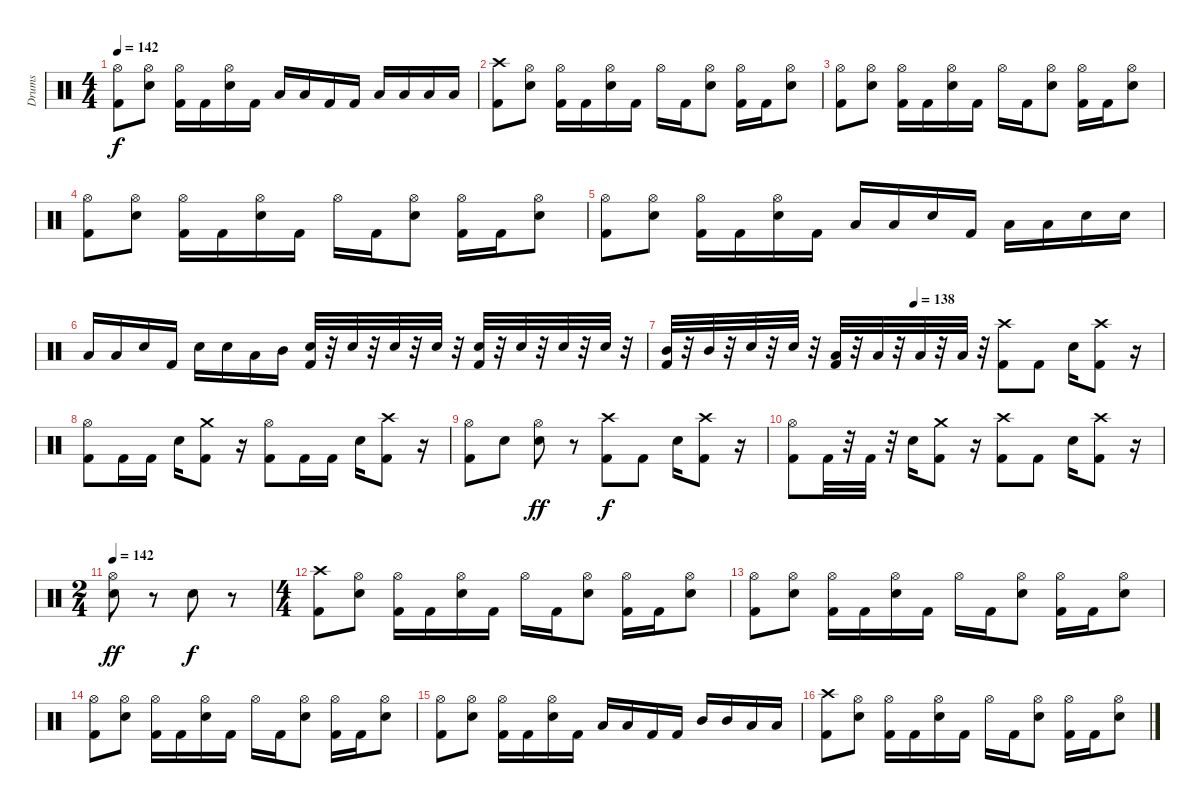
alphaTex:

\track ("Drums" "Drums") {instrument percussion}
\staff {score}
\articulation defaults
\ts (4 4)
\tempo 142
\clef neutral
\ks c
("Kick (hit) 2" "Hi-Hat (open)").8{dy f} ("Electric Snare (hit)" "Hi-Hat (open)").8 ("Hi-Hat (open)" "Kick (hit) 2").16 "Kick (hit) 2".16 ("Hi-Hat (open)" "Electric Snare (hit)").16 "Kick (hit) 2".16 "Low Tom (hit)".16 "Low Tom (hit)".16 "Kick (hit) 2".16 "Kick (hit) 2".16 "Low Tom (hit)".16 "Low Tom (hit)".16 "Low Floor Tom (hit)".16 "Low Floor Tom (hit)".16 |
("Kick (hit) 2" "Crash high (hit)").8 ("Electric Snare (hit)" "Hi-Hat (open)").8 ("Hi-Hat (open)" "Kick (hit) 2").16 "Kick (hit) 2".16 ("Hi-Hat (open)" "Electric Snare (hit)").16 "Kick (hit) 2".16 "Hi-Hat (open)".16 "Kick (hit) 2".16 ("Hi-Hat (open)" "Electric Snare (hit)").8 ("Hi-Hat (open)" "Kick (hit) 2").16 "Kick (hit) 2".16 ("Hi-Hat (open)" "Electric Snare (hit)").8 |
("Kick (hit) 2" "Hi-Hat (open)").8 ("Electric Snare (hit)" "Hi-Hat (open)").8 ("Hi-Hat (open)" "Kick (hit) 2").16 "Kick (hit) 2".16 ("Hi-Hat (open)" "Electric Snare (hit)").16 "Kick (hit) 2".16 "Hi-Hat (open)".16 "Kick (hit) 2".16 ("Hi-Hat (open)" "Electric Snare (hit)").8 ("Hi-Hat (open)" "Kick (hit) 2").16 "Kick (hit) 2".16 ("Hi-Hat (open)" "Electric Snare (hit)").8 |
("Kick (hit) 2" "Hi-Hat (open)").8 ("Electric Snare (hit)" "Hi-Hat (open)").8 ("Hi-Hat (open)" "Kick (hit) 2").16 "Kick (hit) 2".16 ("Hi-Hat (open)" "Electric Snare (hit)").16 "Kick (hit) 2".16 "Hi-Hat (open)".16 "Kick (hit) 2".16 ("Hi-Hat (open)" "Electric Snare (hit)").8 ("Hi-Hat (open)" "Kick (hit) 2").16 "Kick (hit) 2".16 ("Hi-Hat (open)" "Electric Snare (hit)").8 |
("Kick (hit) 2" "Hi-Hat (open)").8 ("Electric Snare (hit)" "Hi-Hat (open)").8 ("Hi-Hat (open)" "Kick (hit) 2").16 "Kick (hit) 2".16 ("Hi-Hat (open)" "Electric Snare (hit)").16 "Kick (hit) 2".16 "Low Tom (hit)".16 "Low Tom (hit)".16 "Electric Snare (hit)".16 "Kick (hit) 2".16 "Low Tom (hit)".16 "Low Tom (hit)".16 "Electric Snare (hit)".16 "Electric Snare (hit)".16 |
"Low Tom (hit)".16 "Low Tom (hit)".16 "Electric Snare (hit)".16 "Kick (hit) 2".16 "Electric Snare (hit)".16 "Electric Snare (hit)".16 "Low Tom (hit)".16 "Mid Tom (hit)".16 ("Electric Snare (hit)" "Kick (hit) 2").32 r.32 "Electric Snare (hit)".32 r.32 "Electric Snare (hit)".32 r.32 "Electric Snare (hit)".32 r.32 ("Electric Snare (hit)" "Kick (hit) 2").32 r.32 "Electric Snare (hit)".32 r.32 "Electric Snare (hit)".32 r.32 "Electric Snare (hit)".32 r.32 |
\tempo (138 0.5)
("Kick (hit) 2" "Mid Tom (hit)").32 r.32 "Mid Tom (hit)".32 r.32 "Electric Snare (hit)".32 r.32 "Electric Snare (hit)".32 r.32 ("Kick (hit) 2" "Low Tom (hit)").32 r.32 "Low Tom (hit)".32 r.32 "Low Floor Tom (hit)".32 r.32 "Low Floor Tom (hit)".32 r.32 ("Kick (hit) 2" "Crash high (hit)").8 "Kick (hit) 2".8 "Electric Snare (hit)".16 ("Kick (hit) 2" "Crash high (hit)").8 r.16 |
("Kick (hit) 2" "Hi-Hat (open)").8 "Kick (hit) 2".16 "Kick (hit) 2".16 "Electric Snare (hit)".16 ("Kick (hit) 2" "Crash medium (hit)").8 r.16 ("Kick (hit) 2" "Hi-Hat (open)").8 "Kick (hit) 2".16 "Kick (hit) 2".16 "Electric Snare (hit)".16 ("Kick (hit) 2" "Crash high (hit)").8 r.16 |
("Kick (hit) 2" "Hi-Hat (open)").8 "Electric Snare (hit)".8 ("Electric Snare (hit)" "Hi-Hat (open)").8{dy ff} r.8 ("Kick (hit) 2" "Crash high (hit)").8{dy f} "Kick (hit) 2".8 "Electric Snare (hit)".16 ("Kick (hit) 2" "Crash high (hit)").8 r.16 |
("Kick (hit) 2" "Hi-Hat (open)").8 "Kick (hit) 2".32 r.32 "Kick (hit) 2".32 r.32 "Electric Snare (hit)".16 ("Kick (hit) 2" "Crash medium (hit)").8 r.16 ("Kick (hit) 2" "Crash high (hit)").8 "Kick (hit) 2".8 "Electric Snare (hit)".16 ("Kick (hit) 2" "Crash high (hit)").8 r.16 |
\ts (2 4)
\tempo 142
("Electric Snare (hit)" "Hi-Hat (open)").8{dy ff} r.8 "Snare (hit)".8{dy f} r.8 |
\ts (4 4)
("Kick (hit) 2" "Crash high (hit)").8 ("Electric Snare (hit)" "Hi-Hat (open)").8 ("Hi-Hat (open)" "Kick (hit) 2").16 "Kick (hit) 2".16 ("Hi-Hat (open)" "Electric Snare (hit)").16 "Kick (hit) 2".16 "Hi-Hat (open)".16 "Kick (hit) 2".16 ("Hi-Hat (open)" "Electric Snare (hit)").8 ("Hi-Hat (open)" "Kick (hit) 2").16 "Kick (hit) 2".16 ("Hi-Hat (open)" "Electric Snare (hit)").8 |
("Kick (hit) 2" "Hi-Hat (open)").8 ("Electric Snare (hit)" "Hi-Hat (open)").8 ("Hi-Hat (open)" "Kick (hit) 2").16 "Kick (hit) 2".16 ("Hi-Hat (open)" "Electric Snare (hit)").16 "Kick (hit) 2".16 "Hi-Hat (open)".16 "Kick (hit) 2".16 ("Hi-Hat (open)" "Electric Snare (hit)").8 ("Hi-Hat (open)" "Kick (hit) 2").16 "Kick (hit) 2".16 ("Hi-Hat (open)" "Electric Snare (hit)").8 |
("Kick (hit) 2" "Hi-Hat (open)").8 ("Electric Snare (hit)" "Hi-Hat (open)").8 ("Hi-Hat (open)" "Kick (hit) 2").16 "Kick (hit) 2".16 ("Hi-Hat (open)" "Electric Snare (hit)").16 "Kick (hit) 2".16 "Hi-Hat (open)".16 "Kick (hit) 2".16 ("Hi-Hat (open)" "Electric Snare (hit)").8 ("Hi-Hat (open)" "Kick (hit) 2").16 "Kick (hit) 2".16 ("Hi-Hat (open)" "Electric Snare (hit)").8 |
("Kick (hit) 2" "Hi-Hat (open)").8 ("Electric Snare (hit)" "Hi-Hat (open)").8 ("Hi-Hat (open)" "Kick (hit) 2").16 "Kick (hit) 2".16 ("Hi-Hat (open)" "Electric Snare (hit)").16 "Kick (hit) 2".16 "Low Tom (hit)".16 "Low Tom (hit)".16 "Kick (hit) 2".16 "Kick (hit) 2".16 "Mid Tom (hit)".16 "Mid Tom (hit)".16 "Low Floor Tom (hit)".16 "Low Floor Tom (hit)".16 |
("Kick (hit) 2" "Crash high (hit)").8 ("Electric Snare (hit)" "Hi-Hat (open)").8 ("Hi-Hat (open)" "Kick (hit) 2").16 "Kick (hit) 2".16 ("Hi-Hat (open)" "Electric Snare (hit)").16 "Kick (hit) 2".16 "Hi-Hat (open)".16 "Kick (hit) 2".16 ("Hi-Hat (open)" "Electric Snare (hit)").8 ("Hi-Hat (open)" "Kick (hit) 2").16 "Kick (hit) 2".16 ("Hi-Hat (open)" "Electric Snare (hit)").8
